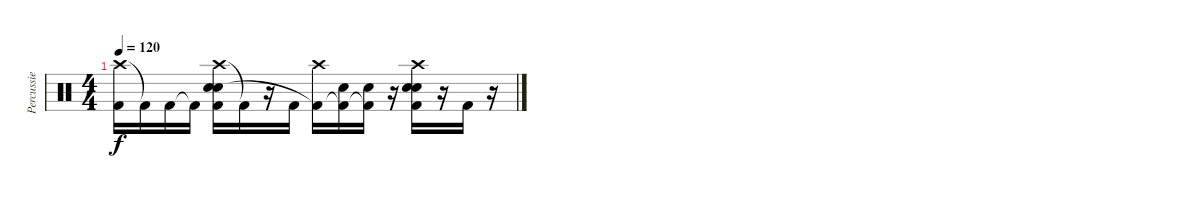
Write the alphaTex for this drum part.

\track ("Percussie" "Percussie") {instrument percussion}
\staff {score}
\articulation defaults
\ts (4 4)
\tempo 120
\clef neutral
\ks c
("Crash high (hit)" "Kick (hit) 2").16{dy f} "Kick (hit) 2"{t}.16 "Kick (hit) 2".16 "Kick (hit) 2"{t}.16 ("Crash high (hit)" "Electric Snare (hit)" "Snare (hit) 2" "Kick (hit) 2").16 "Kick (hit) 2"{t}.16 r.16 "Kick (hit) 2".16 ("Crash high (hit)" "Kick (hit) 2"{t}).16 ("Snare (hit) 2" "Kick (hit) 2"{t}).16 ("Snare (hit) 2" "Kick (hit) 2"{t}).16 r.16 ("Crash high (hit)" "Electric Snare (hit)" "Snare (hit) 2" "Kick (hit) 2").16 r.16 "Kick (hit) 2".16 r.16
